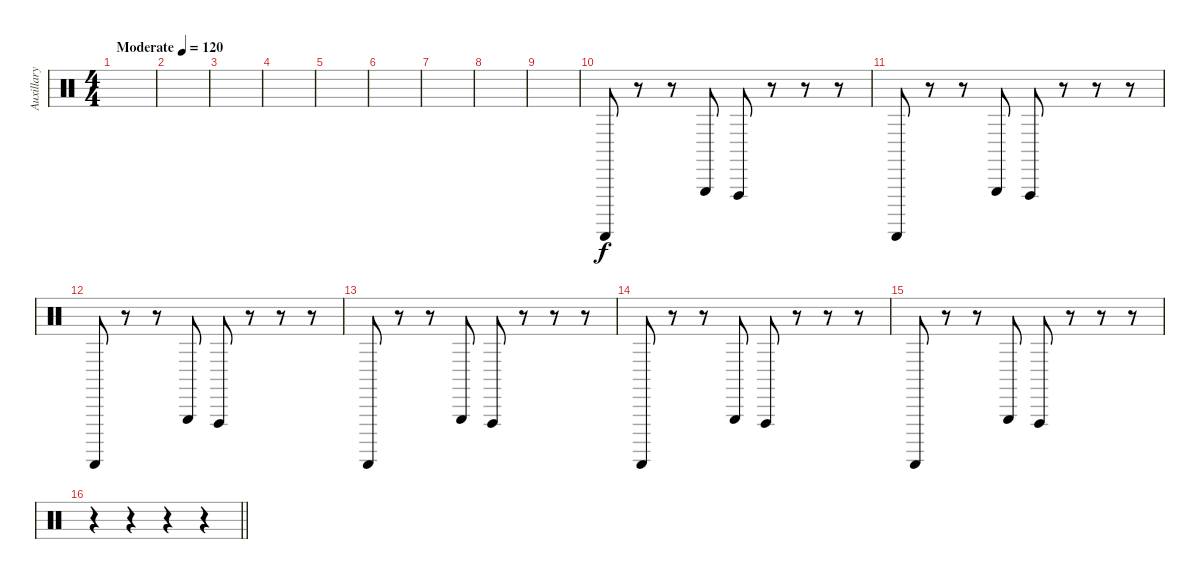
\track ("Auxillary 2" "Auxillary ") {instrument percussion}
\staff {score}
\articulation defaults
\ts (4 4)
\tempo (120 "Moderate")
\clef neutral
\ks c
|
|
|
|
|
|
|
|
|
"Guiro (scrap-return)".8 r.8 r.8 "Triangle (hit)".8 "Vibraslap (hit)".8 r.8 r.8 r.8 |
"Guiro (scrap-return)".8 r.8 r.8 "Triangle (hit)".8 "Vibraslap (hit)".8 r.8 r.8 r.8 |
"Guiro (scrap-return)".8 r.8 r.8 "Triangle (hit)".8 "Vibraslap (hit)".8 r.8 r.8 r.8 |
"Guiro (scrap-return)".8 r.8 r.8 "Triangle (hit)".8 "Vibraslap (hit)".8 r.8 r.8 r.8 |
"Guiro (scrap-return)".8 r.8 r.8 "Triangle (hit)".8 "Vibraslap (hit)".8 r.8 r.8 r.8 |
"Guiro (scrap-return)".8 r.8 r.8 "Triangle (hit)".8 "Vibraslap (hit)".8 r.8 r.8 r.8 |
\barLineRight lightlight
r.4 r.4 r.4 r.4
